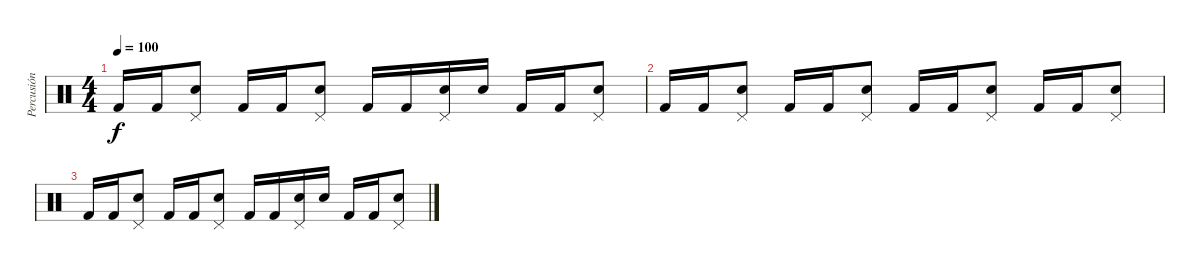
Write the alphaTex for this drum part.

\track ("Percusión" "Percusión") {instrument percussion}
\staff {score}
\articulation defaults
\ts (4 4)
\tempo 100
\clef neutral
\ks c "Kick (hit) 2".16{dy f} "Kick (hit) 2".16
("Electric Snare (hit)" "Pedal Hi-Hat (hit)").8 "Kick (hit) 2".16 "Kick (hit) 2".16 ("Electric Snare (hit)" "Pedal Hi-Hat (hit)").8 "Kick (hit) 2".16 "Kick (hit) 2".16 ("Electric Snare (hit)" "Pedal Hi-Hat (hit)").16 "Electric Snare (hit)".16 "Kick (hit) 2".16 "Kick (hit) 2".16 ("Electric Snare (hit)" "Pedal Hi-Hat (hit)").8 |
"Kick (hit) 2".16 "Kick (hit) 2".16 ("Electric Snare (hit)" "Pedal Hi-Hat (hit)").8 "Kick (hit) 2".16 "Kick (hit) 2".16 ("Electric Snare (hit)" "Pedal Hi-Hat (hit)").8 "Kick (hit) 2".16 "Kick (hit) 2".16 ("Electric Snare (hit)" "Pedal Hi-Hat (hit)").8 "Kick (hit) 2".16 "Kick (hit) 2".16 ("Electric Snare (hit)" "Pedal Hi-Hat (hit)").8 |
"Kick (hit) 2".16 "Kick (hit) 2".16 ("Electric Snare (hit)" "Pedal Hi-Hat (hit)").8 "Kick (hit) 2".16 "Kick (hit) 2".16 ("Electric Snare (hit)" "Pedal Hi-Hat (hit)").8 "Kick (hit) 2".16 "Kick (hit) 2".16 ("Electric Snare (hit)" "Pedal Hi-Hat (hit)").16 "Electric Snare (hit)".16 "Kick (hit) 2".16 "Kick (hit) 2".16 ("Electric Snare (hit)" "Pedal Hi-Hat (hit)").8
